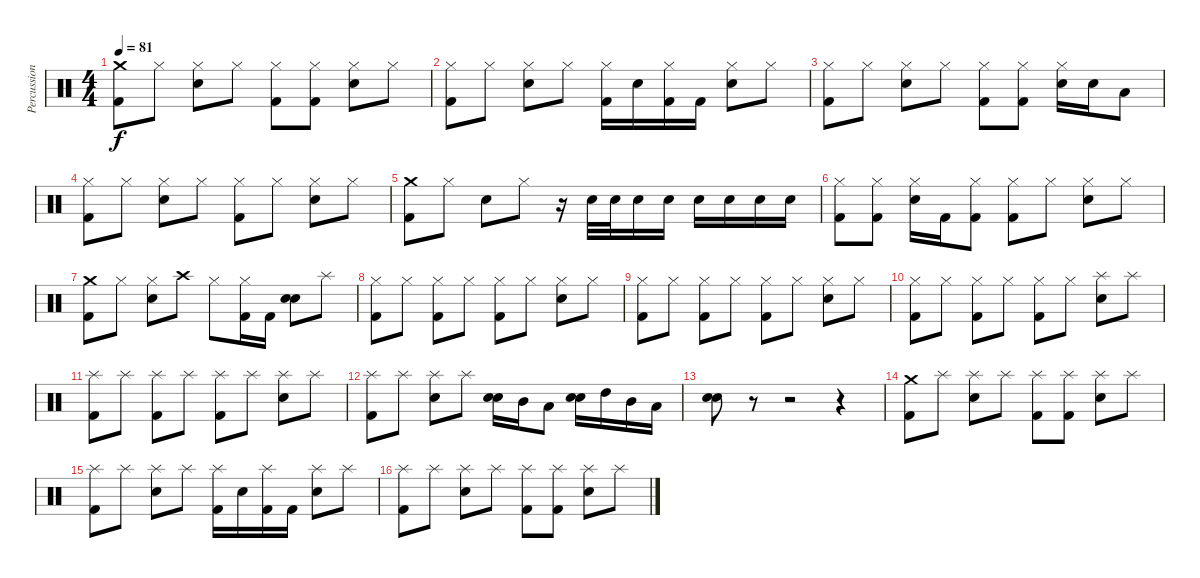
\track ("Percussion" "Percussion") {instrument percussion}
\staff {score}
\articulation defaults
\ts (4 4)
\tempo 81
\clef neutral
\ks c
("Crash medium (hit)" "Kick (hit) 2").8{dy f} "Hi-Hat (closed)".8 ("Hi-Hat (closed)" "Snare (hit) 2").8 "Hi-Hat (closed)".8 ("Hi-Hat (closed)" "Kick (hit) 2").8 ("Hi-Hat (closed)" "Kick (hit) 2").8 ("Hi-Hat (closed)" "Snare (hit) 2").8 "Hi-Hat (closed)".8 |
("Hi-Hat (closed)" "Kick (hit) 2").8 "Hi-Hat (closed)".8 ("Hi-Hat (closed)" "Snare (hit) 2").8 "Hi-Hat (closed)".8 ("Hi-Hat (closed)" "Kick (hit) 2").16 "Snare (hit) 2".16 ("Hi-Hat (closed)" "Kick (hit) 2").16 "Kick (hit) 2".16 ("Hi-Hat (closed)" "Snare (hit) 2").8 "Hi-Hat (closed)".8 |
("Hi-Hat (closed)" "Kick (hit) 2").8 "Hi-Hat (closed)".8 ("Hi-Hat (closed)" "Snare (hit) 2").8 "Hi-Hat (closed)".8 ("Hi-Hat (closed)" "Kick (hit) 2").8 ("Hi-Hat (closed)" "Kick (hit) 2").8 ("Hi-Hat (closed)" "Snare (hit) 2").16 "Snare (hit) 2".16 "Low Tom (hit)".8 |
("Hi-Hat (closed)" "Kick (hit) 2").8 "Hi-Hat (closed)".8 ("Hi-Hat (closed)" "Snare (hit) 2").8 "Hi-Hat (closed)".8 ("Hi-Hat (closed)" "Kick (hit) 2").8 "Hi-Hat (closed)".8 ("Hi-Hat (closed)" "Snare (hit) 2").8 "Hi-Hat (closed)".8 |
("Crash medium (hit)" "Kick (hit) 2").8 "Hi-Hat (closed)".8 "Snare (hit) 2".8 "Hi-Hat (closed)".8 r.16 "Snare (hit) 2".32 "Snare (hit) 2".32 "Snare (hit) 2".16 "Snare (hit) 2".16 "Snare (hit) 2".16 "Snare (hit) 2".16 "Snare (hit) 2".16 "Snare (hit) 2".16 |
("Hi-Hat (closed)" "Kick (hit) 2").8 ("Hi-Hat (closed)" "Kick (hit) 2").8 ("Hi-Hat (closed)" "Snare (hit) 2").16 "Kick (hit) 2".16 ("Hi-Hat (closed)" "Kick (hit) 2").8 ("Hi-Hat (closed)" "Kick (hit) 2").8 "Hi-Hat (closed)".8 ("Hi-Hat (closed)" "Snare (hit) 2").8 "Hi-Hat (closed)".8 |
("Crash medium (hit)" "Kick (hit) 2").8 "Hi-Hat (closed)".8 ("Hi-Hat (closed)" "Snare (hit) 2").8 "Crash high (hit)".8 "Hi-Hat (closed)".8 ("Hi-Hat (closed)" "Kick (hit) 2").16 "Kick (hit) 2".16 ("Snare (hit) 2" "Snare (hit) 2").8 "Splash (hit)".8 |
("Hi-Hat (closed)" "Kick (hit) 2").8 "Hi-Hat (closed)".8 ("Hi-Hat (closed)" "Kick (hit) 2").8 "Hi-Hat (closed)".8 ("Hi-Hat (closed)" "Kick (hit) 2").8 "Hi-Hat (closed)".8 ("Hi-Hat (closed)" "Snare (hit) 2").8 "Hi-Hat (closed)".8 |
("Hi-Hat (closed)" "Kick (hit) 2").8 "Hi-Hat (closed)".8 ("Hi-Hat (closed)" "Kick (hit) 2").8 "Hi-Hat (closed)".8 ("Hi-Hat (closed)" "Kick (hit) 2").8 "Hi-Hat (closed)".8 ("Hi-Hat (closed)" "Snare (hit) 2").8 "Hi-Hat (closed)".8 |
("Hi-Hat (closed)" "Kick (hit) 2").8 "Hi-Hat (closed)".8 ("Hi-Hat (closed)" "Kick (hit) 2").8 "Hi-Hat (closed)".8 ("Hi-Hat (closed)" "Kick (hit) 2").8 "Hi-Hat (closed)".8 ("Splash (hit)" "Snare (hit) 2").8 "Splash (hit)".8 |
("Splash (hit)" "Kick (hit) 2").8 "Splash (hit)".8 ("Splash (hit)" "Kick (hit) 2").8 "Splash (hit)".8 ("Splash (hit)" "Kick (hit) 2").8 "Splash (hit)".8 ("Splash (hit)" "Snare (hit) 2").8 "Splash (hit)".8 |
("Splash (hit)" "Kick (hit) 2").8 "Splash (hit)".8 ("Splash (hit)" "Snare (hit) 2").8 "Splash (hit)".8 ("Snare (hit) 2" "Snare (hit) 2").16 "Mid Tom (hit)".16 "Low Tom (hit)".8 ("Snare (hit) 2" "Snare (hit) 2").16 "High Tom (hit)".16 "Mid Tom (hit)".16 "Low Tom (hit)".16 |
("Snare (hit) 2" "Snare (hit) 2").8 r.8 r.2 r.4 |
("Crash medium (hit)" "Kick (hit) 2").8 "Splash (hit)".8 ("Splash (hit)" "Snare (hit) 2").8 "Splash (hit)".8 ("Splash (hit)" "Kick (hit) 2").8 ("Splash (hit)" "Kick (hit) 2").8 ("Splash (hit)" "Snare (hit) 2").8 "Splash (hit)".8 |
("Splash (hit)" "Kick (hit) 2").8 "Splash (hit)".8 ("Splash (hit)" "Snare (hit) 2").8 "Splash (hit)".8 ("Splash (hit)" "Kick (hit) 2").16 "Snare (hit) 2".16 ("Splash (hit)" "Kick (hit) 2").16 "Kick (hit) 2".16 ("Splash (hit)" "Snare (hit) 2").8 "Splash (hit)".8 |
("Splash (hit)" "Kick (hit) 2").8 "Splash (hit)".8 ("Splash (hit)" "Snare (hit) 2").8 "Splash (hit)".8 ("Splash (hit)" "Kick (hit) 2").8 ("Splash (hit)" "Kick (hit) 2").8 ("Splash (hit)" "Snare (hit) 2").8 "Splash (hit)".8
